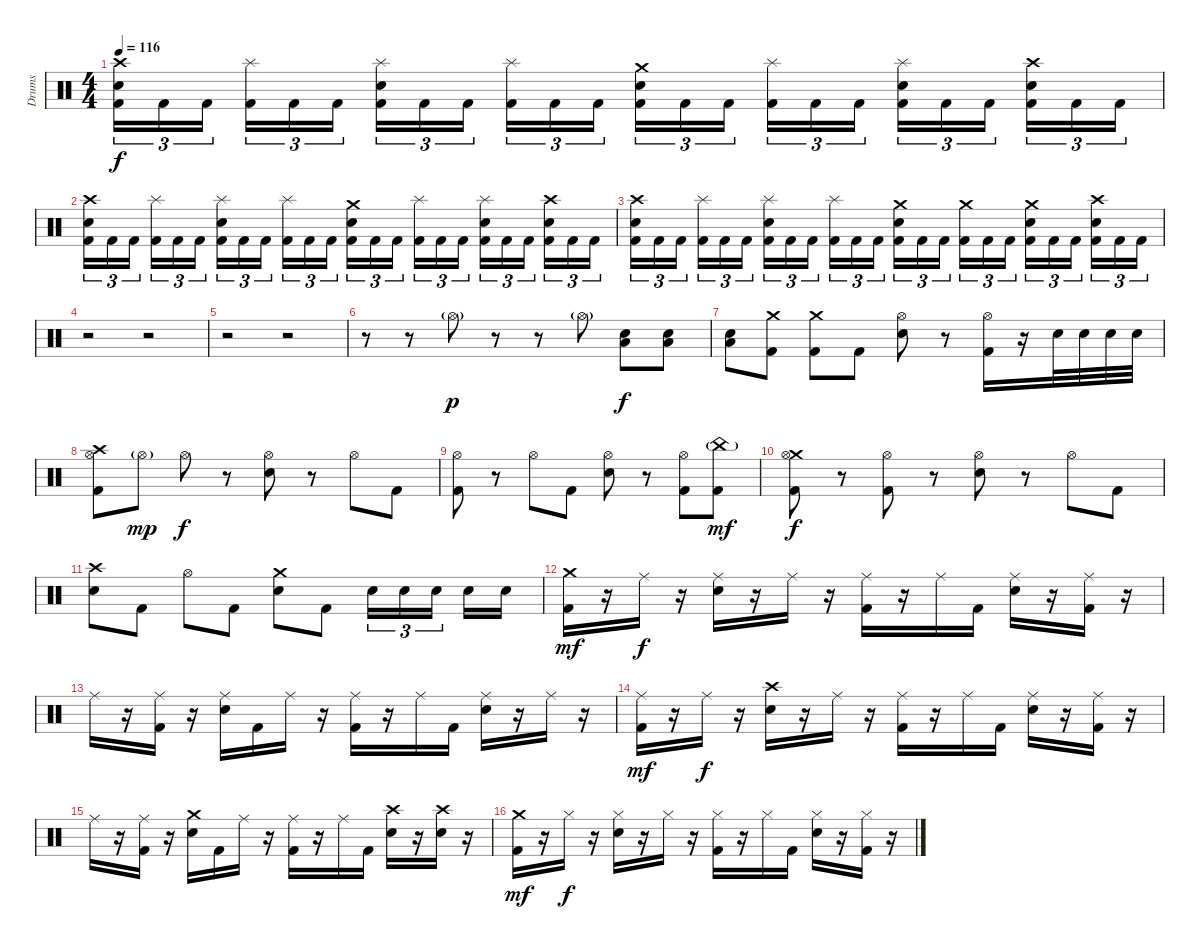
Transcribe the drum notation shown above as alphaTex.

\track ("Drums" "Drums") {instrument percussion}
\staff {score}
\articulation defaults
\ts (4 4)
\tempo 116
\clef neutral
\ks c
("Crash high (hit)" "Snare (hit) 2" "Kick (hit) 2").16{tu (3 2) dy f} "Kick (hit) 2".16{tu (3 2)} "Kick (hit) 2".16{tu (3 2)} ("Splash (hit)" "Kick (hit) 2").16{tu (3 2)} "Kick (hit) 2".16{tu (3 2)} "Kick (hit) 2".16{tu (3 2)} ("Splash (hit)" "Snare (hit) 2" "Kick (hit) 2").16{tu (3 2)} "Kick (hit) 2".16{tu (3 2)} "Kick (hit) 2".16{tu (3 2)} ("Splash (hit)" "Kick (hit) 2").16{tu (3 2)} "Kick (hit) 2".16{tu (3 2)} "Kick (hit) 2".16{tu (3 2)} ("Crash medium (hit)" "Snare (hit) 2" "Kick (hit) 2").16{tu (3 2)} "Kick (hit) 2".16{tu (3 2)} "Kick (hit) 2".16{tu (3 2)} ("Splash (hit)" "Kick (hit) 2").16{tu (3 2)} "Kick (hit) 2".16{tu (3 2)} "Kick (hit) 2".16{tu (3 2)} ("Splash (hit)" "Snare (hit) 2" "Kick (hit) 2").16{tu (3 2)} "Kick (hit) 2".16{tu (3 2)} "Kick (hit) 2".16{tu (3 2)} ("Crash high (hit)" "Snare (hit) 2" "Kick (hit) 2").16{tu (3 2)} "Kick (hit) 2".16{tu (3 2)} "Kick (hit) 2".16{tu (3 2)} |
("Crash high (hit)" "Snare (hit) 2" "Kick (hit) 2").16{tu (3 2)} "Kick (hit) 2".16{tu (3 2)} "Kick (hit) 2".16{tu (3 2)} ("Splash (hit)" "Kick (hit) 2").16{tu (3 2)} "Kick (hit) 2".16{tu (3 2)} "Kick (hit) 2".16{tu (3 2)} ("Splash (hit)" "Snare (hit) 2" "Kick (hit) 2").16{tu (3 2)} "Kick (hit) 2".16{tu (3 2)} "Kick (hit) 2".16{tu (3 2)} ("Splash (hit)" "Kick (hit) 2").16{tu (3 2)} "Kick (hit) 2".16{tu (3 2)} "Kick (hit) 2".16{tu (3 2)} ("Crash medium (hit)" "Snare (hit) 2" "Kick (hit) 2").16{tu (3 2)} "Kick (hit) 2".16{tu (3 2)} "Kick (hit) 2".16{tu (3 2)} ("Splash (hit)" "Kick (hit) 2").16{tu (3 2)} "Kick (hit) 2".16{tu (3 2)} "Kick (hit) 2".16{tu (3 2)} ("Splash (hit)" "Snare (hit) 2" "Kick (hit) 2").16{tu (3 2)} "Kick (hit) 2".16{tu (3 2)} "Kick (hit) 2".16{tu (3 2)} ("Crash high (hit)" "Snare (hit) 2" "Kick (hit) 2").16{tu (3 2)} "Kick (hit) 2".16{tu (3 2)} "Kick (hit) 2".16{tu (3 2)} |
("Crash high (hit)" "Snare (hit) 2" "Kick (hit) 2").16{tu (3 2)} "Kick (hit) 2".16{tu (3 2)} "Kick (hit) 2".16{tu (3 2)} ("Splash (hit)" "Kick (hit) 2").16{tu (3 2)} "Kick (hit) 2".16{tu (3 2)} "Kick (hit) 2".16{tu (3 2)} ("Splash (hit)" "Snare (hit) 2" "Kick (hit) 2").16{tu (3 2)} "Kick (hit) 2".16{tu (3 2)} "Kick (hit) 2".16{tu (3 2)} ("Splash (hit)" "Kick (hit) 2").16{tu (3 2)} "Kick (hit) 2".16{tu (3 2)} "Kick (hit) 2".16{tu (3 2)} ("Crash medium (hit)" "Snare (hit) 2" "Kick (hit) 2").16{tu (3 2)} "Kick (hit) 2".16{tu (3 2)} "Kick (hit) 2".16{tu (3 2)} ("Crash medium (hit)" "Kick (hit) 2").16{tu (3 2)} "Kick (hit) 2".16{tu (3 2)} "Kick (hit) 2".16{tu (3 2)} ("Crash medium (hit)" "Snare (hit) 2" "Kick (hit) 2").16{tu (3 2)} "Kick (hit) 2".16{tu (3 2)} "Kick (hit) 2".16{tu (3 2)} ("Crash high (hit)" "Snare (hit) 2" "Kick (hit) 2").16{tu (3 2)} "Kick (hit) 2".16{tu (3 2)} "Kick (hit) 2".16{tu (3 2)} |
r.2 r.2 |
r.2 r.2 |
r.8 r.8 "Hi-Hat (open)"{g}.8{dy p} r.8 r.8 "Hi-Hat (open)"{g}.8 ("Low Floor Tom (hit)" "Snare (hit) 2").8{dy f} ("Low Floor Tom (hit)" "Snare (hit) 2").8 |
("Low Floor Tom (hit)" "Snare (hit) 2").8 ("Crash medium (hit)" "Kick (hit) 2").8 ("Crash medium (hit)" "Kick (hit) 2").8 "Kick (hit) 2".8 ("Hi-Hat (open)" "Snare (hit) 2").8 r.8 ("Hi-Hat (open)" "Kick (hit) 2").16 r.16 "Snare (hit) 2".32 "Snare (hit) 2".32 "Snare (hit) 2".32 "Snare (hit) 2".32 |
("Crash high (hit)" "Hi-Hat (open)" "Kick (hit) 2").8 "Hi-Hat (open)"{g}.8{dy mp} "Hi-Hat (open)".8{dy f} r.8 ("Hi-Hat (open)" "Snare (hit) 2").8 r.8 "Hi-Hat (open)".8 "Kick (hit) 2".8 |
("Hi-Hat (open)" "Kick (hit) 2").8 r.8 "Hi-Hat (open)".8 "Kick (hit) 2".8 ("Hi-Hat (open)" "Snare (hit) 2").8 r.8 ("Hi-Hat (open)" "Kick (hit) 2").8 ("China (hit)"{g} "Kick (hit) 2").8{dy mf} |
("Crash medium (hit)" "Hi-Hat (open)" "Kick (hit) 2").8{dy f} r.8 ("Hi-Hat (open)" "Kick (hit) 2").8 r.8 ("Hi-Hat (open)" "Snare (hit) 2").8 r.8 "Hi-Hat (open)".8 "Kick (hit) 2".8 |
("Crash high (hit)" "Snare (hit) 2").8 "Kick (hit) 2".8 "Hi-Hat (open)".8 "Kick (hit) 2".8 ("Crash medium (hit)" "Snare (hit) 2").8 "Kick (hit) 2".8 "Snare (hit) 2".16{tu (3 2)} "Snare (hit) 2".16{tu (3 2)} "Snare (hit) 2".16{tu (3 2)} "Snare (hit) 2".16 "Snare (hit) 2".16 |
("Crash medium (hit)" "Kick (hit) 2").16{dy mf} r.16 "Ride (middle)".16{dy f} r.16 ("Ride (middle)" "Snare (hit) 2").16 r.16 "Ride (middle)".16 r.16 ("Ride (middle)" "Kick (hit) 2").16 r.16 "Ride (middle)".16 "Kick (hit) 2".16 ("Ride (middle)" "Snare (hit) 2").16 r.16 ("Ride (middle)" "Kick (hit) 2").16 r.16 |
"Ride (middle)".16 r.16 ("Ride (middle)" "Kick (hit) 2").16 r.16 ("Ride (middle)" "Snare (hit) 2").16 "Kick (hit) 2".16 "Ride (middle)".16 r.16 ("Ride (middle)" "Kick (hit) 2").16 r.16 "Ride (middle)".16 "Kick (hit) 2".16 ("Ride (middle)" "Snare (hit) 2").16 r.16 "Ride (middle)".16 r.16 |
("Ride (middle)" "Kick (hit) 2").16{dy mf} r.16 "Ride (middle)".16{dy f} r.16 ("Crash high (hit)" "Snare (hit) 2").16 r.16 "Ride (middle)".16 r.16 ("Ride (middle)" "Kick (hit) 2").16 r.16 "Ride (middle)".16 "Kick (hit) 2".16 ("Ride (middle)" "Snare (hit) 2").16 r.16 ("Ride (middle)" "Kick (hit) 2").16 r.16 |
"Ride (middle)".16 r.16 ("Ride (middle)" "Kick (hit) 2").16 r.16 ("Crash medium (hit)" "Snare (hit) 2").16 "Kick (hit) 2".16 "Ride (middle)".16 r.16 ("Ride (middle)" "Kick (hit) 2").16 r.16 "Ride (middle)".16 "Kick (hit) 2".16 ("Crash high (hit)" "Snare (hit) 2").16 r.16 ("Crash high (hit)" "Snare (hit) 2").16 r.16 |
("Crash medium (hit)" "Kick (hit) 2").16{dy mf} r.16 "Hi-Hat (closed)".16{dy f} r.16 ("Hi-Hat (closed)" "Snare (hit) 2").16 r.16 "Hi-Hat (closed)".16 r.16 ("Hi-Hat (closed)" "Kick (hit) 2").16 r.16 "Hi-Hat (closed)".16 "Kick (hit) 2".16 ("Hi-Hat (closed)" "Snare (hit) 2").16 r.16 ("Hi-Hat (closed)" "Kick (hit) 2").16 r.16
